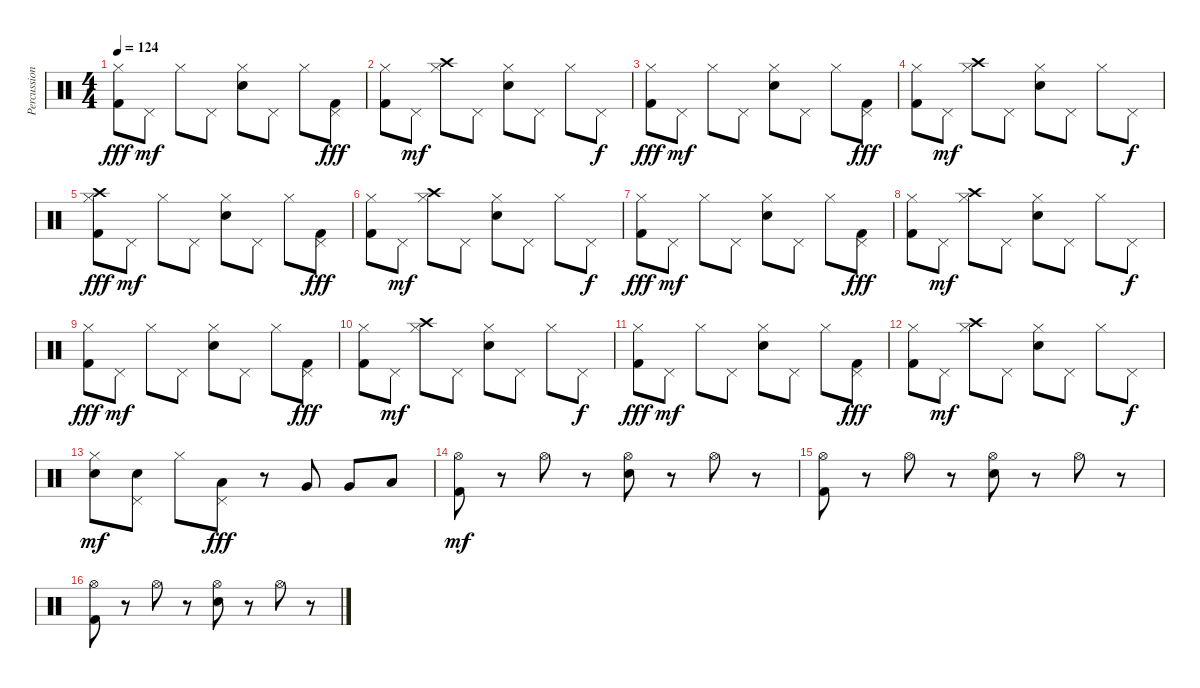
\track ("Percussion" "Percussion") {instrument percussion}
\staff {score}
\articulation defaults
\ts (4 4)
\tempo 124
\clef neutral
\ks c
("Kick (hit) 2" "Hi-Hat (closed)").8{dy fff} "Pedal Hi-Hat (hit)".8{dy mf} "Hi-Hat (closed)".8 "Pedal Hi-Hat (hit)".8 ("Electric Snare (hit)" "Hi-Hat (closed)").8 "Pedal Hi-Hat (hit)".8 "Hi-Hat (closed)".8 ("Kick (hit) 2" "Pedal Hi-Hat (hit)").8{dy fff} |
("Kick (hit) 2" "Hi-Hat (closed)").8 "Pedal Hi-Hat (hit)".8{dy mf} ("Crash high (hit)" "Hi-Hat (closed)").8 "Pedal Hi-Hat (hit)".8 ("Electric Snare (hit)" "Hi-Hat (closed)").8 "Pedal Hi-Hat (hit)".8 "Hi-Hat (closed)".8 "Pedal Hi-Hat (hit)".8{dy f} |
("Kick (hit) 2" "Hi-Hat (closed)").8{dy fff} "Pedal Hi-Hat (hit)".8{dy mf} "Hi-Hat (closed)".8 "Pedal Hi-Hat (hit)".8 ("Electric Snare (hit)" "Hi-Hat (closed)").8 "Pedal Hi-Hat (hit)".8 "Hi-Hat (closed)".8 ("Kick (hit) 2" "Pedal Hi-Hat (hit)").8{dy fff} |
("Kick (hit) 2" "Hi-Hat (closed)").8 "Pedal Hi-Hat (hit)".8{dy mf} ("Crash high (hit)" "Hi-Hat (closed)").8 "Pedal Hi-Hat (hit)".8 ("Electric Snare (hit)" "Hi-Hat (closed)").8 "Pedal Hi-Hat (hit)".8 "Hi-Hat (closed)".8 "Pedal Hi-Hat (hit)".8{dy f} |
("Kick (hit) 2" "Hi-Hat (closed)" "Crash high (hit)").8{dy fff} "Pedal Hi-Hat (hit)".8{dy mf} "Hi-Hat (closed)".8 "Pedal Hi-Hat (hit)".8 ("Electric Snare (hit)" "Hi-Hat (closed)").8 "Pedal Hi-Hat (hit)".8 "Hi-Hat (closed)".8 ("Kick (hit) 2" "Pedal Hi-Hat (hit)").8{dy fff} |
("Kick (hit) 2" "Hi-Hat (closed)").8 "Pedal Hi-Hat (hit)".8{dy mf} ("Crash high (hit)" "Hi-Hat (closed)").8 "Pedal Hi-Hat (hit)".8 ("Electric Snare (hit)" "Hi-Hat (closed)").8 "Pedal Hi-Hat (hit)".8 "Hi-Hat (closed)".8 "Pedal Hi-Hat (hit)".8{dy f} |
("Kick (hit) 2" "Hi-Hat (closed)").8{dy fff} "Pedal Hi-Hat (hit)".8{dy mf} "Hi-Hat (closed)".8 "Pedal Hi-Hat (hit)".8 ("Electric Snare (hit)" "Hi-Hat (closed)").8 "Pedal Hi-Hat (hit)".8 "Hi-Hat (closed)".8 ("Kick (hit) 2" "Pedal Hi-Hat (hit)").8{dy fff} |
("Kick (hit) 2" "Hi-Hat (closed)").8 "Pedal Hi-Hat (hit)".8{dy mf} ("Crash high (hit)" "Hi-Hat (closed)").8 "Pedal Hi-Hat (hit)".8 ("Electric Snare (hit)" "Hi-Hat (closed)").8 "Pedal Hi-Hat (hit)".8 "Hi-Hat (closed)".8 "Pedal Hi-Hat (hit)".8{dy f} |
("Kick (hit) 2" "Hi-Hat (closed)").8{dy fff} "Pedal Hi-Hat (hit)".8{dy mf} "Hi-Hat (closed)".8 "Pedal Hi-Hat (hit)".8 ("Electric Snare (hit)" "Hi-Hat (closed)").8 "Pedal Hi-Hat (hit)".8 "Hi-Hat (closed)".8 ("Kick (hit) 2" "Pedal Hi-Hat (hit)").8{dy fff} |
("Kick (hit) 2" "Hi-Hat (closed)").8 "Pedal Hi-Hat (hit)".8{dy mf} ("Crash high (hit)" "Hi-Hat (closed)").8 "Pedal Hi-Hat (hit)".8 ("Electric Snare (hit)" "Hi-Hat (closed)").8 "Pedal Hi-Hat (hit)".8 "Hi-Hat (closed)".8 "Pedal Hi-Hat (hit)".8{dy f} |
("Kick (hit) 2" "Hi-Hat (closed)").8{dy fff} "Pedal Hi-Hat (hit)".8{dy mf} "Hi-Hat (closed)".8 "Pedal Hi-Hat (hit)".8 ("Electric Snare (hit)" "Hi-Hat (closed)").8 "Pedal Hi-Hat (hit)".8 "Hi-Hat (closed)".8 ("Kick (hit) 2" "Pedal Hi-Hat (hit)").8{dy fff} |
("Kick (hit) 2" "Hi-Hat (closed)").8 "Pedal Hi-Hat (hit)".8{dy mf} ("Crash high (hit)" "Hi-Hat (closed)").8 "Pedal Hi-Hat (hit)".8 ("Electric Snare (hit)" "Hi-Hat (closed)").8 "Pedal Hi-Hat (hit)".8 "Hi-Hat (closed)".8 "Pedal Hi-Hat (hit)".8{dy f} |
("Electric Snare (hit)" "Hi-Hat (closed)").8{dy mf} ("Electric Snare (hit)" "Pedal Hi-Hat (hit)").8 "Hi-Hat (closed)".8 ("Low Tom (hit)" "Pedal Hi-Hat (hit)").8{dy fff} r.8 "Very Low Tom (hit)".8 "Very Low Tom (hit)".8 "Low Floor Tom (hit)".8 |
("Kick (hit) 2" "Hi-Hat (open)").8{dy mf} r.8 "Hi-Hat (open)".8 r.8 ("Electric Snare (hit)" "Hi-Hat (open)").8 r.8 "Hi-Hat (open)".8 r.8 |
("Kick (hit) 2" "Hi-Hat (open)").8 r.8 "Hi-Hat (open)".8 r.8 ("Electric Snare (hit)" "Hi-Hat (open)").8 r.8 "Hi-Hat (open)".8 r.8 |
("Kick (hit) 2" "Hi-Hat (open)").8 r.8 "Hi-Hat (open)".8 r.8 ("Electric Snare (hit)" "Hi-Hat (open)").8 r.8 "Hi-Hat (open)".8 r.8
